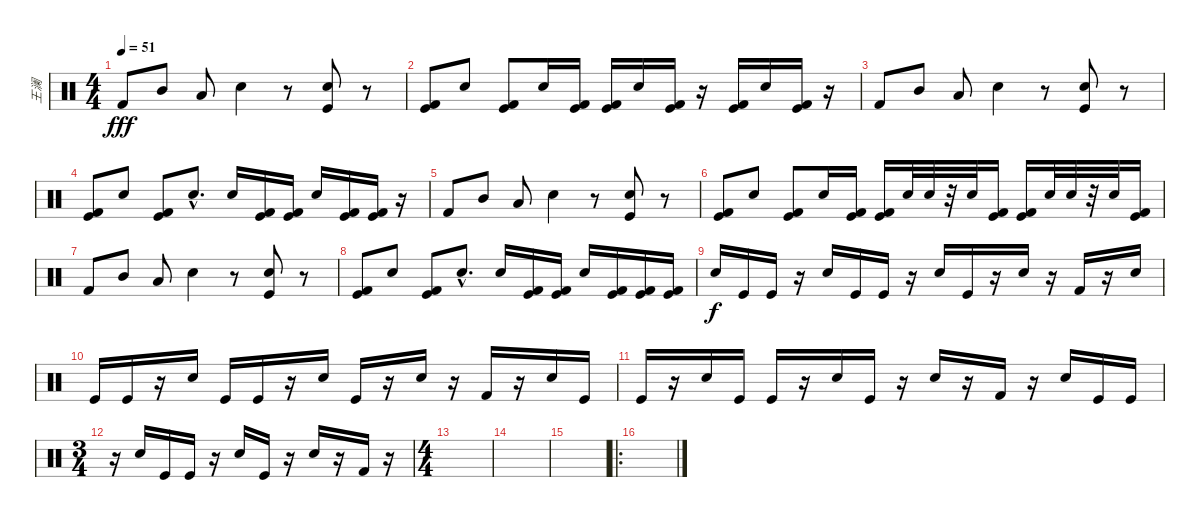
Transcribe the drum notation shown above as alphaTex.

\track ("王澜" "王澜") {instrument percussion}
\staff {score}
\articulation defaults
\ts (4 4)
\tempo 51
\clef neutral
\ks c "Kick (hit) 2".8{dy fff} "Mid Tom (hit)".8 "Low Tom (hit)".8 "Snare (hit) 2".4
r.8 ("Kick (hit)" "Snare (hit) 2").8 r.8 |
("Kick (hit)" "Kick (hit) 2").8 "Snare (hit) 2".8 ("Kick (hit)" "Kick (hit) 2").8 "Snare (hit) 2".16 ("Kick (hit) 2" "Kick (hit)").16 ("Kick (hit)" "Kick (hit) 2").16 "Snare (hit) 2".16 ("Kick (hit) 2" "Kick (hit)").16 r.16 ("Kick (hit) 2" "Kick (hit)").16 "Snare (hit) 2".16 ("Kick (hit)" "Kick (hit) 2").16 r.16 |
"Kick (hit) 2".8 "Mid Tom (hit)".8 "Low Tom (hit)".8 "Snare (hit) 2".4 r.8 ("Kick (hit)" "Snare (hit) 2").8 r.8 |
("Kick (hit)" "Kick (hit) 2").8 "Snare (hit) 2".8 ("Kick (hit)" "Kick (hit) 2").8 "Snare (hit) 2"{hac}.8{d} "Snare (hit) 2".16 ("Kick (hit)" "Kick (hit) 2").16 ("Kick (hit) 2" "Kick (hit)").16 "Snare (hit) 2".16 ("Kick (hit)" "Kick (hit) 2").16 ("Kick (hit) 2" "Kick (hit)").16 r.16 |
"Kick (hit) 2".8 "Mid Tom (hit)".8 "Low Tom (hit)".8 "Snare (hit) 2".4 r.8 ("Kick (hit)" "Snare (hit) 2").8 r.8 |
("Kick (hit)" "Kick (hit) 2").8 "Snare (hit) 2".8 ("Kick (hit)" "Kick (hit) 2").8 "Snare (hit) 2".16 ("Kick (hit) 2" "Kick (hit)").16 ("Kick (hit)" "Kick (hit) 2").16 "Snare (hit) 2".32 "Snare (hit) 2".32 r.32 "Snare (hit) 2".32 ("Kick (hit)" "Kick (hit) 2").16 ("Kick (hit)" "Kick (hit) 2").16 "Snare (hit) 2".32 "Snare (hit) 2".32 r.32 "Snare (hit) 2".32 ("Kick (hit) 2" "Kick (hit)").16 |
"Kick (hit) 2".8 "Mid Tom (hit)".8 "Low Tom (hit)".8 "Snare (hit) 2".4 r.8 ("Kick (hit)" "Snare (hit) 2").8 r.8 |
("Kick (hit)" "Kick (hit) 2").8 "Snare (hit) 2".8 ("Kick (hit)" "Kick (hit) 2").8 "Snare (hit) 2"{hac}.8{d} "Snare (hit) 2".16 ("Kick (hit)" "Kick (hit) 2").16 ("Kick (hit) 2" "Kick (hit)").16 "Snare (hit) 2".16 ("Kick (hit)" "Kick (hit) 2").16 ("Kick (hit) 2" "Kick (hit)").16 ("Kick (hit)" "Kick (hit) 2").16 |
"Snare (hit) 2".16{dy f} "Kick (hit)".16 "Kick (hit)".16 r.16 "Snare (hit) 2".16 "Kick (hit)".16 "Kick (hit)".16 r.16 "Snare (hit) 2".16 "Kick (hit)".16 r.16 "Snare (hit) 2".16 r.16 "Kick (hit) 2".16 r.16 "Snare (hit) 2".16 |
"Kick (hit)".16 "Kick (hit)".16 r.16 "Snare (hit) 2".16 "Kick (hit)".16 "Kick (hit)".16 r.16 "Snare (hit) 2".16 "Kick (hit)".16 r.16 "Snare (hit) 2".16 r.16 "Kick (hit) 2".16 r.16 "Snare (hit) 2".16 "Kick (hit)".16 |
"Kick (hit)".16 r.16 "Snare (hit) 2".16 "Kick (hit)".16 "Kick (hit)".16 r.16 "Snare (hit) 2".16 "Kick (hit)".16 r.16 "Snare (hit) 2".16 r.16 "Kick (hit) 2".16 r.16 "Snare (hit) 2".16 "Kick (hit)".16 "Kick (hit)".16 |
\ts (3 4)
r.16 "Snare (hit) 2".16 "Kick (hit)".16 "Kick (hit)".16 r.16 "Snare (hit) 2".16 "Kick (hit)".16 r.16 "Snare (hit) 2".16 r.16 "Kick (hit) 2".16 r.16 |
\ts (4 4)
|
|
|
\ro
